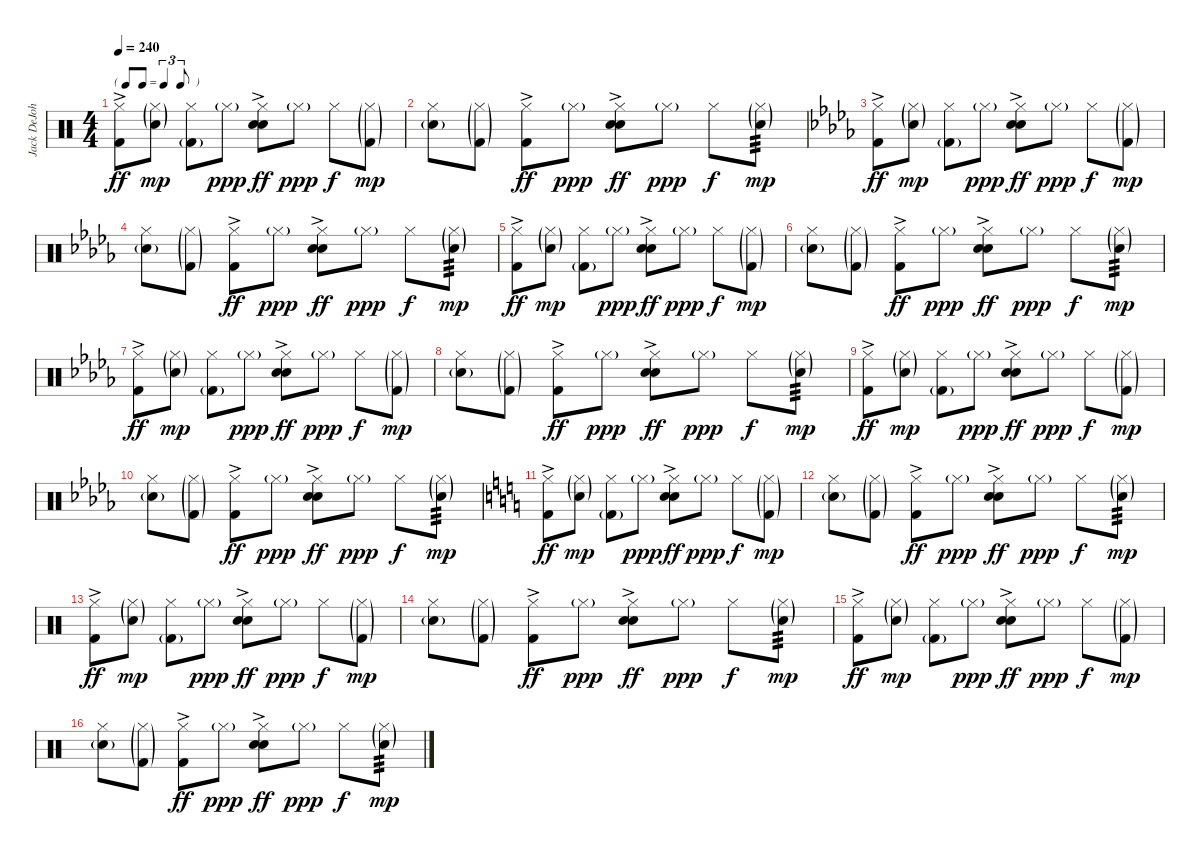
\track ("Jack DeJohnette" "Jack DeJoh") {instrument percussion}
\staff {score}
\articulation defaults
\ts (4 4)
\tf triplet8th
\tempo 240
\clef neutral
\ks c
("Hi-Hat (closed)" "Kick (hit) 2"{ac}).8{dy ff} ("Hi-Hat (closed)"{g} "Snare (hit) 2"{g}).8{dy mp} ("Hi-Hat (closed)" "Kick (hit) 2"{g}).8 "Hi-Hat (closed)"{g}.8{dy ppp} ("Hi-Hat (closed)" "Electric Snare (hit)" "Snare (hit) 2"{ac}).8{dy ff} "Hi-Hat (closed)"{g}.8{dy ppp} "Hi-Hat (closed)".8{dy f} ("Hi-Hat (closed)"{g} "Kick (hit) 2"{g}).8{dy mp} |
("Hi-Hat (closed)" "Snare (hit) 2"{g}).8 ("Hi-Hat (closed)"{g} "Kick (hit) 2"{g}).8 ("Hi-Hat (closed)" "Kick (hit) 2"{ac}).8{dy ff} "Hi-Hat (closed)"{g}.8{dy ppp} ("Hi-Hat (closed)" "Electric Snare (hit)" "Snare (hit) 2"{ac}).8{dy ff} "Hi-Hat (closed)"{g}.8{dy ppp} "Hi-Hat (closed)".8{dy f} ("Hi-Hat (closed)"{g} "Snare (hit) 2"{g}).8{tp 3 dy mp} |
\ks db
("Hi-Hat (closed)" "Kick (hit) 2"{ac}).8{dy ff} ("Hi-Hat (closed)"{g} "Snare (hit) 2"{g}).8{dy mp} ("Hi-Hat (closed)" "Kick (hit) 2"{g}).8 "Hi-Hat (closed)"{g}.8{dy ppp} ("Hi-Hat (closed)" "Electric Snare (hit)" "Snare (hit) 2"{ac}).8{dy ff} "Hi-Hat (closed)"{g}.8{dy ppp} "Hi-Hat (closed)".8{dy f} ("Hi-Hat (closed)"{g} "Kick (hit) 2"{g}).8{dy mp} |
("Hi-Hat (closed)" "Snare (hit) 2"{g}).8 ("Hi-Hat (closed)"{g} "Kick (hit) 2"{g}).8 ("Hi-Hat (closed)" "Kick (hit) 2"{ac}).8{dy ff} "Hi-Hat (closed)"{g}.8{dy ppp} ("Hi-Hat (closed)" "Electric Snare (hit)" "Snare (hit) 2"{ac}).8{dy ff} "Hi-Hat (closed)"{g}.8{dy ppp} "Hi-Hat (closed)".8{dy f} ("Hi-Hat (closed)"{g} "Snare (hit) 2"{g}).8{tp 3 dy mp} |
("Hi-Hat (closed)" "Kick (hit) 2"{ac}).8{dy ff} ("Hi-Hat (closed)"{g} "Snare (hit) 2"{g}).8{dy mp} ("Hi-Hat (closed)" "Kick (hit) 2"{g}).8 "Hi-Hat (closed)"{g}.8{dy ppp} ("Hi-Hat (closed)" "Electric Snare (hit)" "Snare (hit) 2"{ac}).8{dy ff} "Hi-Hat (closed)"{g}.8{dy ppp} "Hi-Hat (closed)".8{dy f} ("Hi-Hat (closed)"{g} "Kick (hit) 2"{g}).8{dy mp} |
("Hi-Hat (closed)" "Snare (hit) 2"{g}).8 ("Hi-Hat (closed)"{g} "Kick (hit) 2"{g}).8 ("Hi-Hat (closed)" "Kick (hit) 2"{ac}).8{dy ff} "Hi-Hat (closed)"{g}.8{dy ppp} ("Hi-Hat (closed)" "Electric Snare (hit)" "Snare (hit) 2"{ac}).8{dy ff} "Hi-Hat (closed)"{g}.8{dy ppp} "Hi-Hat (closed)".8{dy f} ("Hi-Hat (closed)"{g} "Snare (hit) 2"{g}).8{tp 3 dy mp} |
("Hi-Hat (closed)" "Kick (hit) 2"{ac}).8{dy ff} ("Hi-Hat (closed)"{g} "Snare (hit) 2"{g}).8{dy mp} ("Hi-Hat (closed)" "Kick (hit) 2"{g}).8 "Hi-Hat (closed)"{g}.8{dy ppp} ("Hi-Hat (closed)" "Electric Snare (hit)" "Snare (hit) 2"{ac}).8{dy ff} "Hi-Hat (closed)"{g}.8{dy ppp} "Hi-Hat (closed)".8{dy f} ("Hi-Hat (closed)"{g} "Kick (hit) 2"{g}).8{dy mp} |
("Hi-Hat (closed)" "Snare (hit) 2"{g}).8 ("Hi-Hat (closed)"{g} "Kick (hit) 2"{g}).8 ("Hi-Hat (closed)" "Kick (hit) 2"{ac}).8{dy ff} "Hi-Hat (closed)"{g}.8{dy ppp} ("Hi-Hat (closed)" "Electric Snare (hit)" "Snare (hit) 2"{ac}).8{dy ff} "Hi-Hat (closed)"{g}.8{dy ppp} "Hi-Hat (closed)".8{dy f} ("Hi-Hat (closed)"{g} "Snare (hit) 2"{g}).8{tp 3 dy mp} |
("Hi-Hat (closed)" "Kick (hit) 2"{ac}).8{dy ff} ("Hi-Hat (closed)"{g} "Snare (hit) 2"{g}).8{dy mp} ("Hi-Hat (closed)" "Kick (hit) 2"{g}).8 "Hi-Hat (closed)"{g}.8{dy ppp} ("Hi-Hat (closed)" "Electric Snare (hit)" "Snare (hit) 2"{ac}).8{dy ff} "Hi-Hat (closed)"{g}.8{dy ppp} "Hi-Hat (closed)".8{dy f} ("Hi-Hat (closed)"{g} "Kick (hit) 2"{g}).8{dy mp} |
("Hi-Hat (closed)" "Snare (hit) 2"{g}).8 ("Hi-Hat (closed)"{g} "Kick (hit) 2"{g}).8 ("Hi-Hat (closed)" "Kick (hit) 2"{ac}).8{dy ff} "Hi-Hat (closed)"{g}.8{dy ppp} ("Hi-Hat (closed)" "Electric Snare (hit)" "Snare (hit) 2"{ac}).8{dy ff} "Hi-Hat (closed)"{g}.8{dy ppp} "Hi-Hat (closed)".8{dy f} ("Hi-Hat (closed)"{g} "Snare (hit) 2"{g}).8{tp 3 dy mp} |
\ks c
("Hi-Hat (closed)" "Kick (hit) 2"{ac}).8{dy ff} ("Hi-Hat (closed)"{g} "Snare (hit) 2"{g}).8{dy mp} ("Hi-Hat (closed)" "Kick (hit) 2"{g}).8 "Hi-Hat (closed)"{g}.8{dy ppp} ("Hi-Hat (closed)" "Electric Snare (hit)" "Snare (hit) 2"{ac}).8{dy ff} "Hi-Hat (closed)"{g}.8{dy ppp} "Hi-Hat (closed)".8{dy f} ("Hi-Hat (closed)"{g} "Kick (hit) 2"{g}).8{dy mp} |
("Hi-Hat (closed)" "Snare (hit) 2"{g}).8 ("Hi-Hat (closed)"{g} "Kick (hit) 2"{g}).8 ("Hi-Hat (closed)" "Kick (hit) 2"{ac}).8{dy ff} "Hi-Hat (closed)"{g}.8{dy ppp} ("Hi-Hat (closed)" "Electric Snare (hit)" "Snare (hit) 2"{ac}).8{dy ff} "Hi-Hat (closed)"{g}.8{dy ppp} "Hi-Hat (closed)".8{dy f} ("Hi-Hat (closed)"{g} "Snare (hit) 2"{g}).8{tp 3 dy mp} |
("Hi-Hat (closed)" "Kick (hit) 2"{ac}).8{dy ff} ("Hi-Hat (closed)"{g} "Snare (hit) 2"{g}).8{dy mp} ("Hi-Hat (closed)" "Kick (hit) 2"{g}).8 "Hi-Hat (closed)"{g}.8{dy ppp} ("Hi-Hat (closed)" "Electric Snare (hit)" "Snare (hit) 2"{ac}).8{dy ff} "Hi-Hat (closed)"{g}.8{dy ppp} "Hi-Hat (closed)".8{dy f} ("Hi-Hat (closed)"{g} "Kick (hit) 2"{g}).8{dy mp} |
("Hi-Hat (closed)" "Snare (hit) 2"{g}).8 ("Hi-Hat (closed)"{g} "Kick (hit) 2"{g}).8 ("Hi-Hat (closed)" "Kick (hit) 2"{ac}).8{dy ff} "Hi-Hat (closed)"{g}.8{dy ppp} ("Hi-Hat (closed)" "Electric Snare (hit)" "Snare (hit) 2"{ac}).8{dy ff} "Hi-Hat (closed)"{g}.8{dy ppp} "Hi-Hat (closed)".8{dy f} ("Hi-Hat (closed)"{g} "Snare (hit) 2"{g}).8{tp 3 dy mp} |
("Hi-Hat (closed)" "Kick (hit) 2"{ac}).8{dy ff} ("Hi-Hat (closed)"{g} "Snare (hit) 2"{g}).8{dy mp} ("Hi-Hat (closed)" "Kick (hit) 2"{g}).8 "Hi-Hat (closed)"{g}.8{dy ppp} ("Hi-Hat (closed)" "Electric Snare (hit)" "Snare (hit) 2"{ac}).8{dy ff} "Hi-Hat (closed)"{g}.8{dy ppp} "Hi-Hat (closed)".8{dy f} ("Hi-Hat (closed)"{g} "Kick (hit) 2"{g}).8{dy mp} |
("Hi-Hat (closed)" "Snare (hit) 2"{g}).8 ("Hi-Hat (closed)"{g} "Kick (hit) 2"{g}).8 ("Hi-Hat (closed)" "Kick (hit) 2"{ac}).8{dy ff} "Hi-Hat (closed)"{g}.8{dy ppp} ("Hi-Hat (closed)" "Electric Snare (hit)" "Snare (hit) 2"{ac}).8{dy ff} "Hi-Hat (closed)"{g}.8{dy ppp} "Hi-Hat (closed)".8{dy f} ("Hi-Hat (closed)"{g} "Snare (hit) 2"{g}).8{tp 3 dy mp}
